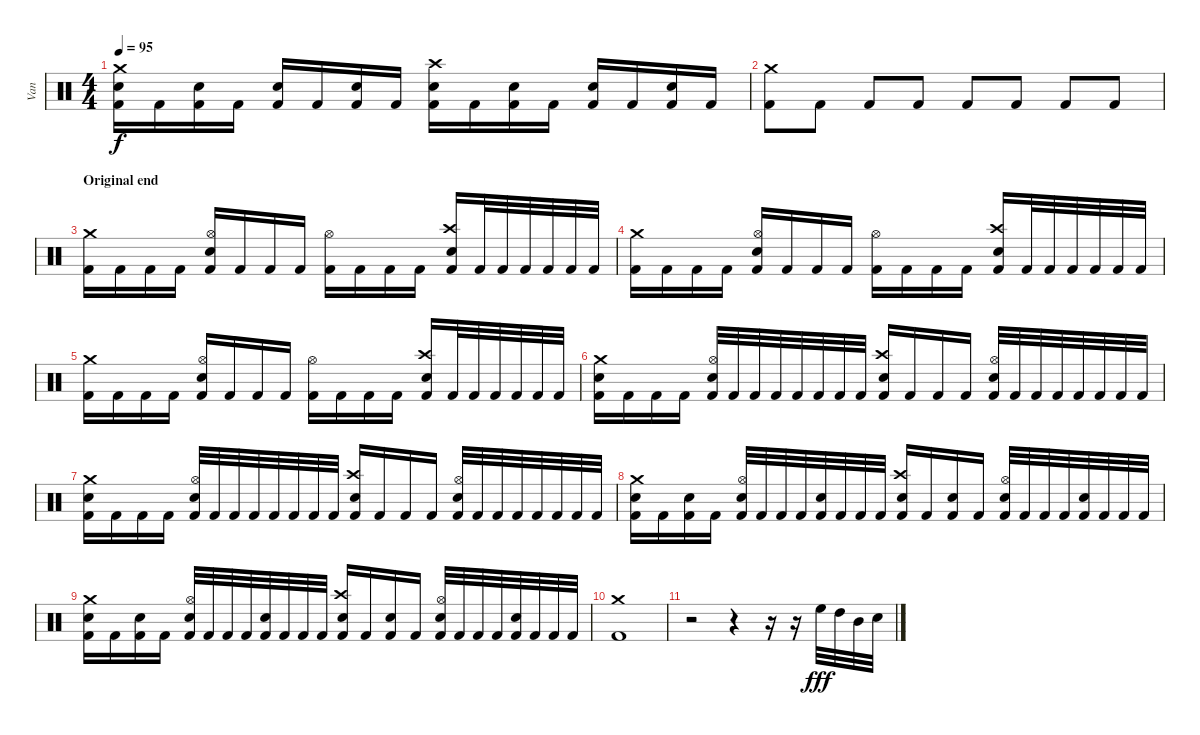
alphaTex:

\track ("Van" "Van") {instrument percussion}
\staff {score}
\articulation defaults
\ts (4 4)
\tempo 95
\clef neutral
\ks c
("Crash medium (hit)" "Electric Snare (hit)" "Kick (hit) 2").16{dy f} "Kick (hit) 2".16 ("Electric Snare (hit)" "Kick (hit) 2").16 "Kick (hit) 2".16 ("Electric Snare (hit)" "Kick (hit) 2").16 "Kick (hit) 2".16 ("Electric Snare (hit)" "Kick (hit) 2").16 "Kick (hit) 2".16 ("Crash high (hit)" "Electric Snare (hit)" "Kick (hit) 2").16 "Kick (hit) 2".16 ("Electric Snare (hit)" "Kick (hit) 2").16 "Kick (hit) 2".16 ("Electric Snare (hit)" "Kick (hit) 2").16 "Kick (hit) 2".16 ("Electric Snare (hit)" "Kick (hit) 2").16 "Kick (hit) 2".16 |
("Crash medium (hit)" "Kick (hit) 2").8{volume 14} "Kick (hit) 2".8{volume 5} "Kick (hit) 2".8{volume 14} "Kick (hit) 2".8 "Kick (hit) 2".8 "Kick (hit) 2".8 "Kick (hit) 2".8 "Kick (hit) 2".8 |
\section ("" "Original end")
("Crash medium (hit)" "Kick (hit) 2").16 "Kick (hit) 2".16 "Kick (hit) 2".16 "Kick (hit) 2".16 ("Hi-Hat (open)" "Snare (hit) 2" "Kick (hit) 2").16 "Kick (hit) 2".16 "Kick (hit) 2".16 "Kick (hit) 2".16 ("Hi-Hat (open)" "Kick (hit) 2").16 "Kick (hit) 2".16 "Kick (hit) 2".16 "Kick (hit) 2".16 ("Crash high (hit)" "Snare (hit) 2" "Kick (hit) 2").16 "Kick (hit) 2".32 "Kick (hit) 2".32 "Kick (hit) 2".32 "Kick (hit) 2".32 "Kick (hit) 2".32 "Kick (hit) 2".32 |
("Crash medium (hit)" "Kick (hit) 2").16 "Kick (hit) 2".16 "Kick (hit) 2".16 "Kick (hit) 2".16 ("Hi-Hat (open)" "Snare (hit) 2" "Kick (hit) 2").16 "Kick (hit) 2".16 "Kick (hit) 2".16 "Kick (hit) 2".16 ("Hi-Hat (open)" "Kick (hit) 2").16 "Kick (hit) 2".16 "Kick (hit) 2".16 "Kick (hit) 2".16 ("Crash high (hit)" "Snare (hit) 2" "Kick (hit) 2").16 "Kick (hit) 2".32 "Kick (hit) 2".32 "Kick (hit) 2".32 "Kick (hit) 2".32 "Kick (hit) 2".32 "Kick (hit) 2".32 |
("Crash medium (hit)" "Kick (hit) 2").16 "Kick (hit) 2".16 "Kick (hit) 2".16 "Kick (hit) 2".16 ("Hi-Hat (open)" "Snare (hit) 2" "Kick (hit) 2").16 "Kick (hit) 2".16 "Kick (hit) 2".16 "Kick (hit) 2".16 ("Hi-Hat (open)" "Kick (hit) 2").16 "Kick (hit) 2".16 "Kick (hit) 2".16 "Kick (hit) 2".16 ("Crash high (hit)" "Snare (hit) 2" "Kick (hit) 2").16 "Kick (hit) 2".32 "Kick (hit) 2".32 "Kick (hit) 2".32 "Kick (hit) 2".32 "Kick (hit) 2".32 "Kick (hit) 2".32 |
("Crash medium (hit)" "Snare (hit) 2" "Kick (hit) 2").16 "Kick (hit) 2".16 "Kick (hit) 2".16 "Kick (hit) 2".16 ("Hi-Hat (open)" "Snare (hit) 2" "Kick (hit) 2").32 "Kick (hit) 2".32 "Kick (hit) 2".32 "Kick (hit) 2".32 "Kick (hit) 2".32 "Kick (hit) 2".32 "Kick (hit) 2".32 "Kick (hit) 2".32 ("Crash high (hit)" "Snare (hit) 2" "Kick (hit) 2").16 "Kick (hit) 2".16 "Kick (hit) 2".16 "Kick (hit) 2".16 ("Hi-Hat (open)" "Snare (hit) 2" "Kick (hit) 2").32 "Kick (hit) 2".32 "Kick (hit) 2".32 "Kick (hit) 2".32 "Kick (hit) 2".32 "Kick (hit) 2".32 "Kick (hit) 2".32 "Kick (hit) 2".32 |
("Crash medium (hit)" "Snare (hit) 2" "Kick (hit) 2").16 "Kick (hit) 2".16 "Kick (hit) 2".16 "Kick (hit) 2".16 ("Hi-Hat (open)" "Snare (hit) 2" "Kick (hit) 2").32 "Kick (hit) 2".32 "Kick (hit) 2".32 "Kick (hit) 2".32 "Kick (hit) 2".32 "Kick (hit) 2".32 "Kick (hit) 2".32 "Kick (hit) 2".32 ("Crash high (hit)" "Snare (hit) 2" "Kick (hit) 2").16 "Kick (hit) 2".16 "Kick (hit) 2".16 "Kick (hit) 2".16 ("Hi-Hat (open)" "Snare (hit) 2" "Kick (hit) 2").32 "Kick (hit) 2".32 "Kick (hit) 2".32 "Kick (hit) 2".32 "Kick (hit) 2".32 "Kick (hit) 2".32 "Kick (hit) 2".32 "Kick (hit) 2".32 |
("Crash medium (hit)" "Snare (hit) 2" "Kick (hit) 2").16 "Kick (hit) 2".16 ("Snare (hit) 2" "Kick (hit) 2").16 "Kick (hit) 2".16 ("Hi-Hat (open)" "Snare (hit) 2" "Kick (hit) 2").32 "Kick (hit) 2".32 "Kick (hit) 2".32 "Kick (hit) 2".32 ("Snare (hit) 2" "Kick (hit) 2").32 "Kick (hit) 2".32 "Kick (hit) 2".32 "Kick (hit) 2".32 ("Crash high (hit)" "Snare (hit) 2" "Kick (hit) 2").16 "Kick (hit) 2".16 ("Snare (hit) 2" "Kick (hit) 2").16 "Kick (hit) 2".16 ("Hi-Hat (open)" "Snare (hit) 2" "Kick (hit) 2").32 "Kick (hit) 2".32 "Kick (hit) 2".32 "Kick (hit) 2".32 ("Snare (hit) 2" "Kick (hit) 2").32 "Kick (hit) 2".32 "Kick (hit) 2".32 "Kick (hit) 2".32 |
("Crash medium (hit)" "Snare (hit) 2" "Kick (hit) 2").16 "Kick (hit) 2".16 ("Snare (hit) 2" "Kick (hit) 2").16 "Kick (hit) 2".16 ("Hi-Hat (open)" "Snare (hit) 2" "Kick (hit) 2").32 "Kick (hit) 2".32 "Kick (hit) 2".32 "Kick (hit) 2".32 ("Snare (hit) 2" "Kick (hit) 2").32 "Kick (hit) 2".32 "Kick (hit) 2".32 "Kick (hit) 2".32 ("Crash high (hit)" "Snare (hit) 2" "Kick (hit) 2").16 "Kick (hit) 2".16 ("Snare (hit) 2" "Kick (hit) 2").16 "Kick (hit) 2".16 ("Hi-Hat (open)" "Snare (hit) 2" "Kick (hit) 2").32 "Kick (hit) 2".32 "Kick (hit) 2".32 "Kick (hit) 2".32 ("Snare (hit) 2" "Kick (hit) 2").32 "Kick (hit) 2".32 "Kick (hit) 2".32 "Kick (hit) 2".32 |
("Crash medium (hit)" "Kick (hit) 2").1 |
r.2 r.4 r.16 r.16 "High Floor Tom (hit)".32{dy fff} "High Tom (hit)".32 "Mid Tom (hit)".32 "Electric Snare (hit)".32
